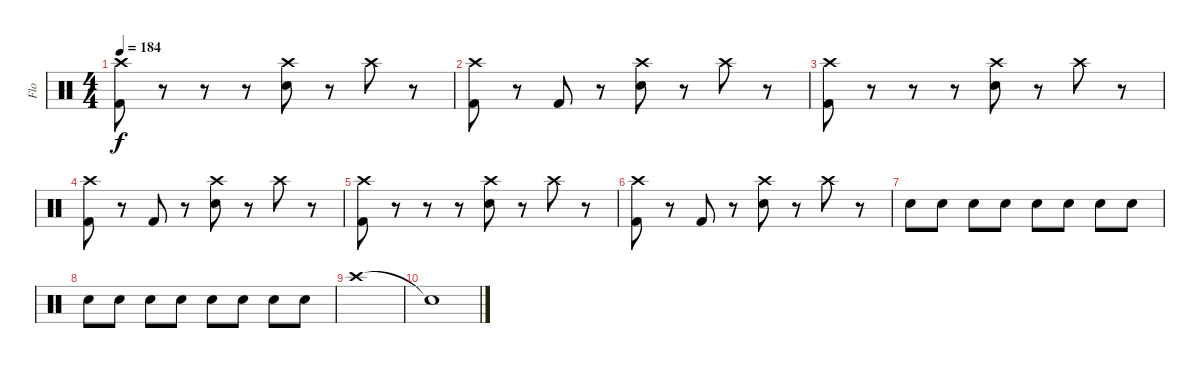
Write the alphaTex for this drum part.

\track ("Flo" "Flo") {instrument percussion}
\staff {score}
\articulation defaults
\ts (4 4)
\tempo 184
\clef neutral
\ks c
("Crash high (hit)" "Kick (hit) 2").8{dy f} r.8 r.8 r.8 ("Crash high (hit)" "Electric Snare (hit)").8 r.8 "Crash high (hit)".8 r.8 |
("Crash high (hit)" "Kick (hit) 2").8 r.8 "Kick (hit) 2".8 r.8 ("Crash high (hit)" "Electric Snare (hit)").8 r.8 "Crash high (hit)".8 r.8 |
("Crash high (hit)" "Kick (hit) 2").8 r.8 r.8 r.8 ("Crash high (hit)" "Electric Snare (hit)").8 r.8 "Crash high (hit)".8 r.8 |
("Crash high (hit)" "Kick (hit) 2").8 r.8 "Kick (hit) 2".8 r.8 ("Crash high (hit)" "Electric Snare (hit)").8 r.8 "Crash high (hit)".8 r.8 |
("Crash high (hit)" "Kick (hit) 2").8 r.8 r.8 r.8 ("Crash high (hit)" "Electric Snare (hit)").8 r.8 "Crash high (hit)".8 r.8 |
("Crash high (hit)" "Kick (hit) 2").8 r.8 "Kick (hit) 2".8 r.8 ("Crash high (hit)" "Electric Snare (hit)").8 r.8 "Crash high (hit)".8 r.8 |
"Electric Snare (hit)".8 "Electric Snare (hit)".8 "Electric Snare (hit)".8 "Electric Snare (hit)".8 "Electric Snare (hit)".8 "Electric Snare (hit)".8 "Electric Snare (hit)".8 "Electric Snare (hit)".8 |
"Electric Snare (hit)".8 "Electric Snare (hit)".8 "Electric Snare (hit)".8 "Electric Snare (hit)".8 "Electric Snare (hit)".8 "Electric Snare (hit)".8 "Electric Snare (hit)".8 "Electric Snare (hit)".8 |
"Crash high (hit)".1 |
"Snare (hit)"{t}.1
